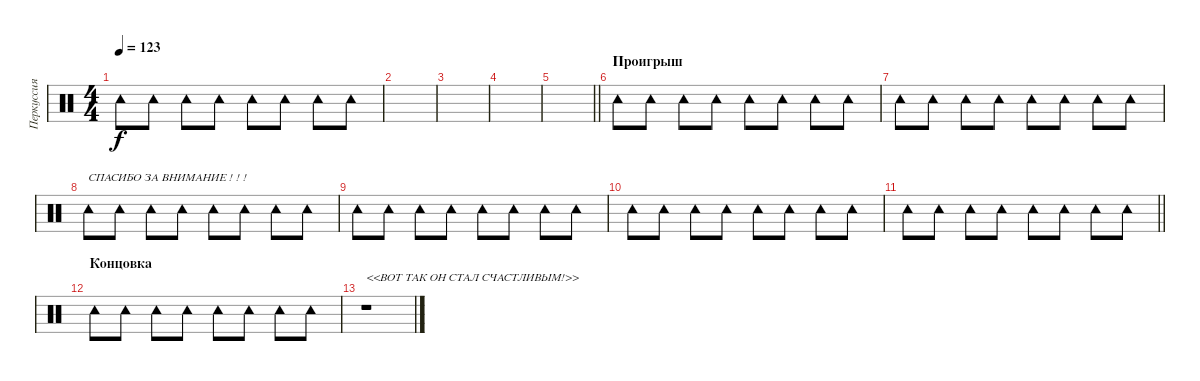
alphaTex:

\track ("Перкуссия 1" "Перкуссия ") {instrument percussion}
\staff {score}
\articulation defaults
\ts (4 4)
\tempo 123
\clef neutral
\ks c "Tambourine (hit)".8{dy f} "Tambourine (hit)".8 "Tambourine (hit)".8 "Tambourine (hit)".8 "Tambourine (hit)".8 "Tambourine (hit)".8 "Tambourine (hit)".8 "Tambourine (hit)".8
|
|
|
|
\barLineRight lightlight
|
\section ("" "Проигрыш")
"Tambourine (hit)".8 "Tambourine (hit)".8 "Tambourine (hit)".8 "Tambourine (hit)".8 "Tambourine (hit)".8 "Tambourine (hit)".8 "Tambourine (hit)".8 "Tambourine (hit)".8 |
"Tambourine (hit)".8 "Tambourine (hit)".8 "Tambourine (hit)".8 "Tambourine (hit)".8 "Tambourine (hit)".8 "Tambourine (hit)".8 "Tambourine (hit)".8 "Tambourine (hit)".8 |
"Tambourine (hit)".8{txt "СПАСИБО ЗА ВНИМАНИЕ ! ! !"} "Tambourine (hit)".8 "Tambourine (hit)".8 "Tambourine (hit)".8 "Tambourine (hit)".8 "Tambourine (hit)".8 "Tambourine (hit)".8 "Tambourine (hit)".8 |
"Tambourine (hit)".8 "Tambourine (hit)".8 "Tambourine (hit)".8 "Tambourine (hit)".8 "Tambourine (hit)".8 "Tambourine (hit)".8 "Tambourine (hit)".8 "Tambourine (hit)".8 |
"Tambourine (hit)".8 "Tambourine (hit)".8 "Tambourine (hit)".8 "Tambourine (hit)".8 "Tambourine (hit)".8 "Tambourine (hit)".8 "Tambourine (hit)".8 "Tambourine (hit)".8 |
\barLineRight lightlight "Tambourine (hit)".8 "Tambourine (hit)".8 "Tambourine (hit)".8 "Tambourine (hit)".8 "Tambourine (hit)".8 "Tambourine (hit)".8 "Tambourine (hit)".8 "Tambourine (hit)".8
|
\section ("" "Концовка")
"Tambourine (hit)".8 "Tambourine (hit)".8 "Tambourine (hit)".8 "Tambourine (hit)".8 "Tambourine (hit)".8 "Tambourine (hit)".8 "Tambourine (hit)".8 "Tambourine (hit)".8 |
r.1{txt "<<ВОТ ТАК ОН СТАЛ СЧАСТЛИВЫМ!>>"}
